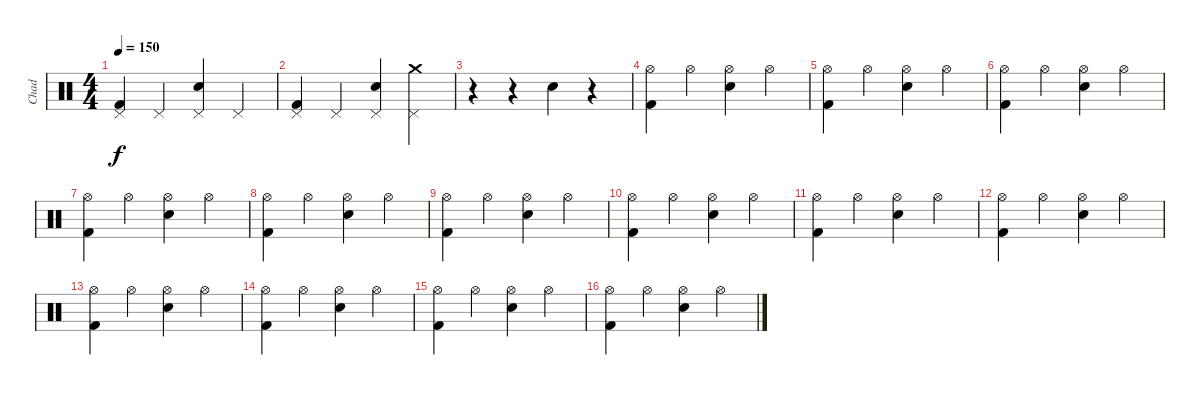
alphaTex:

\track ("Chad" "Chad") {instrument percussion}
\staff {score}
\articulation defaults
\ts (4 4)
\tempo 150
\clef neutral
\ks c
("Pedal Hi-Hat (hit)" "Kick (hit) 2").4{dy f} "Pedal Hi-Hat (hit)".4 ("Pedal Hi-Hat (hit)" "Snare (hit) 2").4 "Pedal Hi-Hat (hit)".4 |
("Pedal Hi-Hat (hit)" "Kick (hit) 2").4 "Pedal Hi-Hat (hit)".4 ("Pedal Hi-Hat (hit)" "Snare (hit) 2").4 ("Pedal Hi-Hat (hit)" "Crash medium (hit)").4 |
r.4 r.4 "Snare (hit) 2".4 r.4 |
("Hi-Hat (open)" "Kick (hit) 2").4 "Hi-Hat (open)".4 ("Hi-Hat (open)" "Snare (hit) 2").4 "Hi-Hat (open)".4 |
("Hi-Hat (open)" "Kick (hit) 2").4 "Hi-Hat (open)".4 ("Hi-Hat (open)" "Snare (hit) 2").4 "Hi-Hat (open)".4 |
("Hi-Hat (open)" "Kick (hit) 2").4 "Hi-Hat (open)".4 ("Hi-Hat (open)" "Snare (hit) 2").4 "Hi-Hat (open)".4 |
("Hi-Hat (open)" "Kick (hit) 2").4 "Hi-Hat (open)".4 ("Hi-Hat (open)" "Snare (hit) 2").4 "Hi-Hat (open)".4 |
("Hi-Hat (open)" "Kick (hit) 2").4 "Hi-Hat (open)".4 ("Hi-Hat (open)" "Snare (hit) 2").4 "Hi-Hat (open)".4 |
("Hi-Hat (open)" "Kick (hit) 2").4 "Hi-Hat (open)".4 ("Hi-Hat (open)" "Snare (hit) 2").4 "Hi-Hat (open)".4 |
("Hi-Hat (open)" "Kick (hit) 2").4 "Hi-Hat (open)".4 ("Hi-Hat (open)" "Snare (hit) 2").4 "Hi-Hat (open)".4 |
("Hi-Hat (open)" "Kick (hit) 2").4 "Hi-Hat (open)".4 ("Hi-Hat (open)" "Snare (hit) 2").4 "Hi-Hat (open)".4 |
("Hi-Hat (open)" "Kick (hit) 2").4 "Hi-Hat (open)".4 ("Hi-Hat (open)" "Snare (hit) 2").4 "Hi-Hat (open)".4 |
("Hi-Hat (open)" "Kick (hit) 2").4 "Hi-Hat (open)".4 ("Hi-Hat (open)" "Snare (hit) 2").4 "Hi-Hat (open)".4 |
("Hi-Hat (open)" "Kick (hit) 2").4 "Hi-Hat (open)".4 ("Hi-Hat (open)" "Snare (hit) 2").4 "Hi-Hat (open)".4 |
("Hi-Hat (open)" "Kick (hit) 2").4 "Hi-Hat (open)".4 ("Hi-Hat (open)" "Snare (hit) 2").4 "Hi-Hat (open)".4 |
("Hi-Hat (open)" "Kick (hit) 2").4 "Hi-Hat (open)".4 ("Hi-Hat (open)" "Snare (hit) 2").4 "Hi-Hat (open)".4
